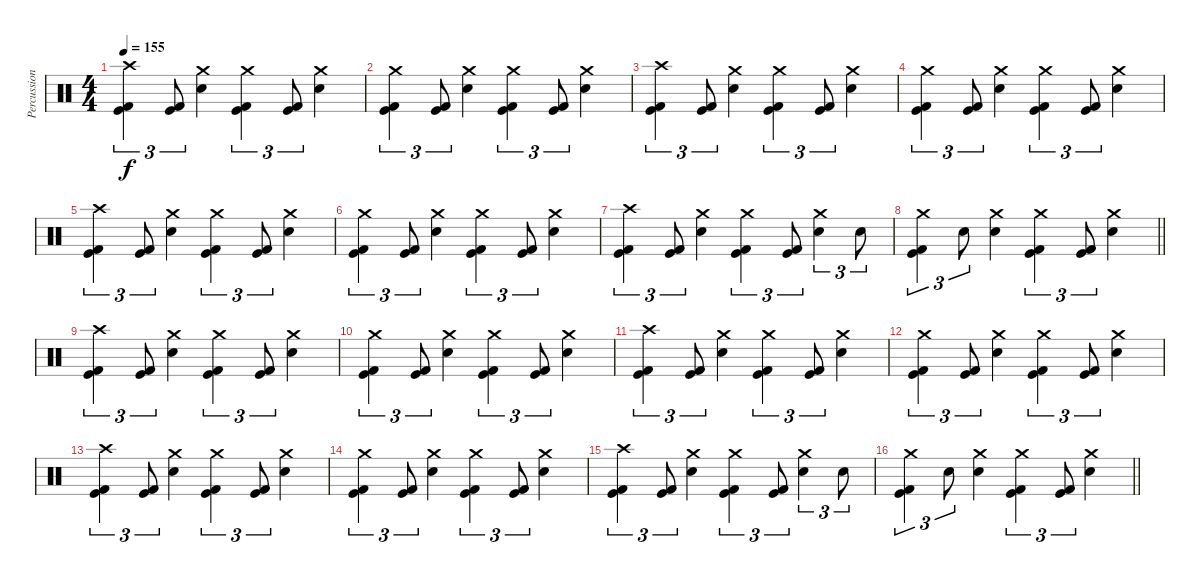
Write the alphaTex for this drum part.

\track ("Percussion" "Percussion") {instrument percussion}
\staff {score}
\articulation defaults
\ts (4 4)
\section ("" "")
\tempo 155
\clef neutral
\ks c
("Crash high (hit)" "Kick (hit)" "Kick (hit) 2").4{tu (3 2) dy f} ("Kick (hit)" "Kick (hit) 2").8{tu (3 2)} ("Crash medium (hit)" "Electric Snare (hit)").4 ("Crash medium (hit)" "Kick (hit)" "Kick (hit) 2").4{tu (3 2)} ("Kick (hit)" "Kick (hit) 2").8{tu (3 2)} ("Crash medium (hit)" "Electric Snare (hit)").4 |
("Crash medium (hit)" "Kick (hit)" "Kick (hit) 2").4{tu (3 2)} ("Kick (hit)" "Kick (hit) 2").8{tu (3 2)} ("Crash medium (hit)" "Electric Snare (hit)").4 ("Crash medium (hit)" "Kick (hit)" "Kick (hit) 2").4{tu (3 2)} ("Kick (hit)" "Kick (hit) 2").8{tu (3 2)} ("Crash medium (hit)" "Electric Snare (hit)").4 |
("Crash high (hit)" "Kick (hit)" "Kick (hit) 2").4{tu (3 2)} ("Kick (hit)" "Kick (hit) 2").8{tu (3 2)} ("Crash medium (hit)" "Electric Snare (hit)").4 ("Crash medium (hit)" "Kick (hit)" "Kick (hit) 2").4{tu (3 2)} ("Kick (hit)" "Kick (hit) 2").8{tu (3 2)} ("Crash medium (hit)" "Electric Snare (hit)").4 |
("Crash medium (hit)" "Kick (hit)" "Kick (hit) 2").4{tu (3 2)} ("Kick (hit)" "Kick (hit) 2").8{tu (3 2)} ("Crash medium (hit)" "Electric Snare (hit)").4 ("Crash medium (hit)" "Kick (hit)" "Kick (hit) 2").4{tu (3 2)} ("Kick (hit)" "Kick (hit) 2").8{tu (3 2)} ("Crash medium (hit)" "Electric Snare (hit)").4 |
("Crash high (hit)" "Kick (hit)" "Kick (hit) 2").4{tu (3 2)} ("Kick (hit)" "Kick (hit) 2").8{tu (3 2)} ("Crash medium (hit)" "Electric Snare (hit)").4 ("Crash medium (hit)" "Kick (hit)" "Kick (hit) 2").4{tu (3 2)} ("Kick (hit)" "Kick (hit) 2").8{tu (3 2)} ("Crash medium (hit)" "Electric Snare (hit)").4 |
("Crash medium (hit)" "Kick (hit)" "Kick (hit) 2").4{tu (3 2)} ("Kick (hit)" "Kick (hit) 2").8{tu (3 2)} ("Crash medium (hit)" "Electric Snare (hit)").4 ("Crash medium (hit)" "Kick (hit)" "Kick (hit) 2").4{tu (3 2)} ("Kick (hit)" "Kick (hit) 2").8{tu (3 2)} ("Crash medium (hit)" "Electric Snare (hit)").4 |
("Crash high (hit)" "Kick (hit)" "Kick (hit) 2").4{tu (3 2)} ("Kick (hit)" "Kick (hit) 2").8{tu (3 2)} ("Crash medium (hit)" "Electric Snare (hit)").4 ("Crash medium (hit)" "Kick (hit)" "Kick (hit) 2").4{tu (3 2)} ("Kick (hit)" "Kick (hit) 2").8{tu (3 2)} ("Crash medium (hit)" "Electric Snare (hit)").4{tu (3 2)} "Electric Snare (hit)".8{tu (3 2)} |
\barLineRight lightlight
("Crash medium (hit)" "Kick (hit)" "Kick (hit) 2").4{tu (3 2)} "Electric Snare (hit)".8{tu (3 2)} ("Crash medium (hit)" "Electric Snare (hit)").4 ("Crash medium (hit)" "Kick (hit)" "Kick (hit) 2").4{tu (3 2)} ("Kick (hit)" "Kick (hit) 2").8{tu (3 2)} ("Crash medium (hit)" "Electric Snare (hit)").4 |
\section ("" "")
("Crash high (hit)" "Kick (hit)" "Kick (hit) 2").4{tu (3 2)} ("Kick (hit)" "Kick (hit) 2").8{tu (3 2)} ("Crash medium (hit)" "Electric Snare (hit)").4 ("Crash medium (hit)" "Kick (hit)" "Kick (hit) 2").4{tu (3 2)} ("Kick (hit)" "Kick (hit) 2").8{tu (3 2)} ("Crash medium (hit)" "Electric Snare (hit)").4 |
("Crash medium (hit)" "Kick (hit)" "Kick (hit) 2").4{tu (3 2)} ("Kick (hit)" "Kick (hit) 2").8{tu (3 2)} ("Crash medium (hit)" "Electric Snare (hit)").4 ("Crash medium (hit)" "Kick (hit)" "Kick (hit) 2").4{tu (3 2)} ("Kick (hit)" "Kick (hit) 2").8{tu (3 2)} ("Crash medium (hit)" "Electric Snare (hit)").4 |
("Crash high (hit)" "Kick (hit)" "Kick (hit) 2").4{tu (3 2)} ("Kick (hit)" "Kick (hit) 2").8{tu (3 2)} ("Crash medium (hit)" "Electric Snare (hit)").4 ("Crash medium (hit)" "Kick (hit)" "Kick (hit) 2").4{tu (3 2)} ("Kick (hit)" "Kick (hit) 2").8{tu (3 2)} ("Crash medium (hit)" "Electric Snare (hit)").4 |
("Crash medium (hit)" "Kick (hit)" "Kick (hit) 2").4{tu (3 2)} ("Kick (hit)" "Kick (hit) 2").8{tu (3 2)} ("Crash medium (hit)" "Electric Snare (hit)").4 ("Crash medium (hit)" "Kick (hit)" "Kick (hit) 2").4{tu (3 2)} ("Kick (hit)" "Kick (hit) 2").8{tu (3 2)} ("Crash medium (hit)" "Electric Snare (hit)").4 |
("Crash high (hit)" "Kick (hit)" "Kick (hit) 2").4{tu (3 2)} ("Kick (hit)" "Kick (hit) 2").8{tu (3 2)} ("Crash medium (hit)" "Electric Snare (hit)").4 ("Crash medium (hit)" "Kick (hit)" "Kick (hit) 2").4{tu (3 2)} ("Kick (hit)" "Kick (hit) 2").8{tu (3 2)} ("Crash medium (hit)" "Electric Snare (hit)").4 |
("Crash medium (hit)" "Kick (hit)" "Kick (hit) 2").4{tu (3 2)} ("Kick (hit)" "Kick (hit) 2").8{tu (3 2)} ("Crash medium (hit)" "Electric Snare (hit)").4 ("Crash medium (hit)" "Kick (hit)" "Kick (hit) 2").4{tu (3 2)} ("Kick (hit)" "Kick (hit) 2").8{tu (3 2)} ("Crash medium (hit)" "Electric Snare (hit)").4 |
("Crash high (hit)" "Kick (hit)" "Kick (hit) 2").4{tu (3 2)} ("Kick (hit)" "Kick (hit) 2").8{tu (3 2)} ("Crash medium (hit)" "Electric Snare (hit)").4 ("Crash medium (hit)" "Kick (hit)" "Kick (hit) 2").4{tu (3 2)} ("Kick (hit)" "Kick (hit) 2").8{tu (3 2)} ("Crash medium (hit)" "Electric Snare (hit)").4{tu (3 2)} "Electric Snare (hit)".8{tu (3 2)} |
\barLineRight lightlight
("Crash medium (hit)" "Kick (hit)" "Kick (hit) 2").4{tu (3 2)} "Electric Snare (hit)".8{tu (3 2)} ("Crash medium (hit)" "Electric Snare (hit)").4 ("Crash medium (hit)" "Kick (hit)" "Kick (hit) 2").4{tu (3 2)} ("Kick (hit)" "Kick (hit) 2").8{tu (3 2)} ("Crash medium (hit)" "Electric Snare (hit)").4
